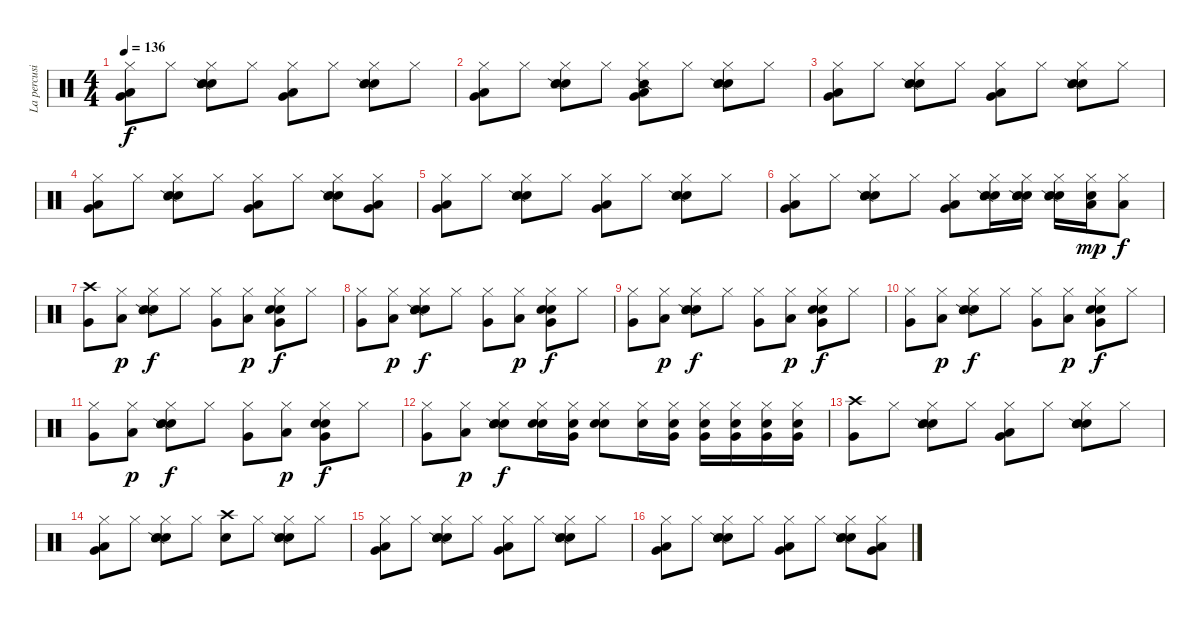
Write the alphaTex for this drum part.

\track ("La percusión" "La percusi") {instrument percussion}
\staff {score}
\articulation defaults
\ts (4 4)
\tempo 136
\clef neutral
\ks c
("Hi-Hat (closed)" "Low Floor Tom (hit)" "Very Low Tom (hit)").8{dy f} "Hi-Hat (closed)".8 ("Hi-Hat (closed)" "Snare (hit) 2" "Snare (hit) 2" "Snare (side stick) 2").8 "Hi-Hat (closed)".8 ("Hi-Hat (closed)" "Low Floor Tom (hit)" "Very Low Tom (hit)").8 "Hi-Hat (closed)".8 ("Hi-Hat (closed)" "Snare (hit) 2" "Snare (hit) 2" "Snare (side stick) 2").8 "Hi-Hat (closed)".8 |
("Hi-Hat (closed)" "Low Floor Tom (hit)" "Very Low Tom (hit)").8 "Hi-Hat (closed)".8 ("Hi-Hat (closed)" "Snare (hit) 2" "Snare (hit) 2" "Snare (side stick) 2").8 "Hi-Hat (closed)".8 ("Hi-Hat (closed)" "Low Floor Tom (hit)" "Very Low Tom (hit)" "Snare (side stick) 2").8 "Hi-Hat (closed)".8 ("Hi-Hat (closed)" "Snare (hit) 2" "Snare (hit) 2" "Snare (side stick) 2").8 "Hi-Hat (closed)".8 |
("Hi-Hat (closed)" "Low Floor Tom (hit)" "Very Low Tom (hit)").8 "Hi-Hat (closed)".8 ("Hi-Hat (closed)" "Snare (hit) 2" "Snare (hit) 2" "Snare (side stick) 2").8 "Hi-Hat (closed)".8 ("Hi-Hat (closed)" "Low Floor Tom (hit)" "Very Low Tom (hit)").8 "Hi-Hat (closed)".8 ("Hi-Hat (closed)" "Snare (hit) 2" "Snare (hit) 2" "Snare (side stick) 2").8 "Hi-Hat (closed)".8 |
("Hi-Hat (closed)" "Low Floor Tom (hit)" "Very Low Tom (hit)").8 "Hi-Hat (closed)".8 ("Hi-Hat (closed)" "Snare (hit) 2" "Snare (hit) 2" "Snare (side stick) 2").8 "Hi-Hat (closed)".8 ("Hi-Hat (closed)" "Low Floor Tom (hit)" "Very Low Tom (hit)").8 "Hi-Hat (closed)".8 ("Hi-Hat (closed)" "Snare (hit) 2" "Snare (hit) 2" "Snare (side stick) 2").8 ("Hi-Hat (closed)" "Low Floor Tom (hit)" "Very Low Tom (hit)").8 |
("Hi-Hat (closed)" "Low Floor Tom (hit)" "Very Low Tom (hit)").8 "Hi-Hat (closed)".8 ("Hi-Hat (closed)" "Snare (hit) 2" "Snare (hit) 2" "Snare (side stick) 2").8 "Hi-Hat (closed)".8 ("Hi-Hat (closed)" "Low Floor Tom (hit)" "Very Low Tom (hit)").8 "Hi-Hat (closed)".8 ("Hi-Hat (closed)" "Snare (hit) 2" "Snare (hit) 2" "Snare (side stick) 2").8 "Hi-Hat (closed)".8 |
("Hi-Hat (closed)" "Low Floor Tom (hit)" "Very Low Tom (hit)").8 "Hi-Hat (closed)".8 ("Hi-Hat (closed)" "Snare (hit) 2" "Snare (hit) 2" "Snare (side stick) 2").8 "Hi-Hat (closed)".8 ("Hi-Hat (closed)" "Low Floor Tom (hit)" "Very Low Tom (hit)").8 ("Hi-Hat (closed)" "Snare (hit) 2" "Snare (hit) 2" "Snare (side stick) 2").16 ("Hi-Hat (closed)" "Snare (hit) 2" "Snare (hit) 2" "Snare (side stick) 2").16 ("Hi-Hat (closed)" "Snare (hit) 2" "Snare (hit) 2" "Snare (side stick) 2").16 ("Hi-Hat (closed)" "Low Tom (hit)" "Snare (hit) 2").16{dy mp} ("Hi-Hat (closed)" "Low Floor Tom (hit)").8{dy f} |
("Crash high (hit)" "Very Low Tom (hit)").8 ("Hi-Hat (closed)" "Low Floor Tom (hit)").8{dy p} ("Hi-Hat (closed)" "Snare (hit) 2" "Snare (hit) 2" "Snare (side stick) 2").8{dy f} "Hi-Hat (closed)".8 ("Hi-Hat (closed)" "Very Low Tom (hit)").8 ("Hi-Hat (closed)" "Low Floor Tom (hit)").8{dy p} ("Hi-Hat (closed)" "Snare (hit) 2" "Snare (hit) 2" "Very Low Tom (hit)").8{dy f} "Hi-Hat (closed)".8 |
("Hi-Hat (closed)" "Very Low Tom (hit)").8 ("Hi-Hat (closed)" "Low Floor Tom (hit)").8{dy p} ("Hi-Hat (closed)" "Snare (hit) 2" "Snare (hit) 2" "Snare (side stick) 2").8{dy f} "Hi-Hat (closed)".8 ("Hi-Hat (closed)" "Very Low Tom (hit)").8 ("Hi-Hat (closed)" "Low Floor Tom (hit)").8{dy p} ("Hi-Hat (closed)" "Snare (hit) 2" "Snare (hit) 2" "Very Low Tom (hit)").8{dy f} "Hi-Hat (closed)".8 |
("Hi-Hat (closed)" "Very Low Tom (hit)").8 ("Hi-Hat (closed)" "Low Floor Tom (hit)").8{dy p} ("Hi-Hat (closed)" "Snare (hit) 2" "Snare (hit) 2" "Snare (side stick) 2").8{dy f} "Hi-Hat (closed)".8 ("Hi-Hat (closed)" "Very Low Tom (hit)").8 ("Hi-Hat (closed)" "Low Floor Tom (hit)").8{dy p} ("Hi-Hat (closed)" "Snare (hit) 2" "Snare (hit) 2" "Very Low Tom (hit)").8{dy f} "Hi-Hat (closed)".8 |
("Hi-Hat (closed)" "Very Low Tom (hit)").8 ("Hi-Hat (closed)" "Low Floor Tom (hit)").8{dy p} ("Hi-Hat (closed)" "Snare (hit) 2" "Snare (hit) 2" "Snare (side stick) 2").8{dy f} "Hi-Hat (closed)".8 ("Hi-Hat (closed)" "Very Low Tom (hit)").8 ("Hi-Hat (closed)" "Low Floor Tom (hit)").8{dy p} ("Hi-Hat (closed)" "Snare (hit) 2" "Snare (hit) 2" "Very Low Tom (hit)").8{dy f} "Hi-Hat (closed)".8 |
("Hi-Hat (closed)" "Very Low Tom (hit)").8 ("Hi-Hat (closed)" "Low Floor Tom (hit)").8{dy p} ("Hi-Hat (closed)" "Snare (hit) 2" "Snare (hit) 2" "Snare (side stick) 2").8{dy f} "Hi-Hat (closed)".8 ("Hi-Hat (closed)" "Very Low Tom (hit)").8 ("Hi-Hat (closed)" "Low Floor Tom (hit)").8{dy p} ("Hi-Hat (closed)" "Snare (hit) 2" "Snare (hit) 2" "Very Low Tom (hit)").8{dy f} "Hi-Hat (closed)".8 |
("Hi-Hat (closed)" "Very Low Tom (hit)").8 ("Hi-Hat (closed)" "Low Floor Tom (hit)").8{dy p} ("Hi-Hat (closed)" "Snare (hit) 2" "Snare (hit) 2" "Snare (side stick) 2").8{dy f} ("Hi-Hat (closed)" "Snare (hit) 2" "Snare (hit) 2").16 ("Hi-Hat (closed)" "Very Low Tom (hit)" "Snare (hit) 2").16 ("Hi-Hat (closed)" "Snare (hit) 2" "Snare (hit) 2").8 ("Hi-Hat (closed)" "Snare (hit) 2").16 ("Hi-Hat (closed)" "Very Low Tom (hit)" "Snare (hit) 2").16 ("Hi-Hat (closed)" "Very Low Tom (hit)" "Snare (hit) 2").16 ("Hi-Hat (closed)" "Very Low Tom (hit)" "Snare (hit) 2").16 ("Hi-Hat (closed)" "Very Low Tom (hit)" "Snare (hit) 2").16 ("Hi-Hat (closed)" "Very Low Tom (hit)" "Snare (hit) 2").16 |
("Crash high (hit)" "Very Low Tom (hit)").8 "Hi-Hat (closed)".8 ("Hi-Hat (closed)" "Snare (hit) 2" "Snare (hit) 2" "Snare (side stick) 2").8 "Hi-Hat (closed)".8 ("Hi-Hat (closed)" "Very Low Tom (hit)" "Low Floor Tom (hit)").8 "Hi-Hat (closed)".8 ("Hi-Hat (closed)" "Snare (hit) 2" "Snare (hit) 2" "Snare (side stick) 2").8 "Hi-Hat (closed)".8 |
("Hi-Hat (closed)" "Low Floor Tom (hit)" "Very Low Tom (hit)").8 "Hi-Hat (closed)".8 ("Hi-Hat (closed)" "Snare (hit) 2" "Snare (hit) 2" "Snare (side stick) 2").8 "Hi-Hat (closed)".8 ("Crash high (hit)" "Snare (hit) 2").8 "Hi-Hat (closed)".8 ("Hi-Hat (closed)" "Snare (hit) 2" "Snare (hit) 2" "Snare (side stick) 2").8 "Hi-Hat (closed)".8 |
("Hi-Hat (closed)" "Low Floor Tom (hit)" "Very Low Tom (hit)").8 "Hi-Hat (closed)".8 ("Hi-Hat (closed)" "Snare (hit) 2" "Snare (hit) 2" "Snare (side stick) 2").8 "Hi-Hat (closed)".8 ("Hi-Hat (closed)" "Low Floor Tom (hit)" "Very Low Tom (hit)").8 "Hi-Hat (closed)".8 ("Hi-Hat (closed)" "Snare (hit) 2" "Snare (hit) 2" "Snare (side stick) 2").8 "Hi-Hat (closed)".8 |
("Hi-Hat (closed)" "Low Floor Tom (hit)" "Very Low Tom (hit)").8 "Hi-Hat (closed)".8 ("Hi-Hat (closed)" "Snare (hit) 2" "Snare (hit) 2" "Snare (side stick) 2").8 "Hi-Hat (closed)".8 ("Hi-Hat (closed)" "Low Floor Tom (hit)" "Very Low Tom (hit)").8 "Hi-Hat (closed)".8 ("Hi-Hat (closed)" "Snare (hit) 2" "Snare (hit) 2" "Snare (side stick) 2").8 ("Hi-Hat (closed)" "Low Floor Tom (hit)" "Very Low Tom (hit)").8
